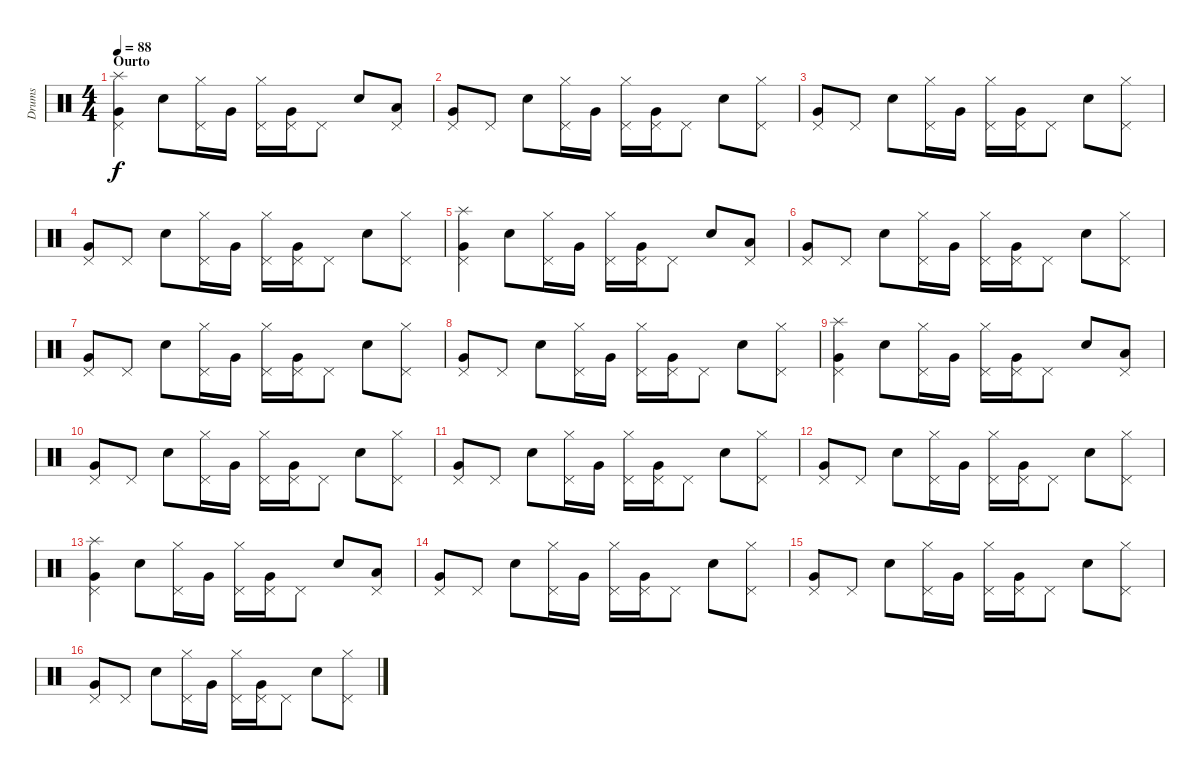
\track ("Drums" "Drums") {instrument percussion}
\staff {score}
\articulation defaults
\ts (4 4)
\section ("" "Ourto")
\tempo 88
\clef neutral
\ks c
("Very Low Tom (hit)" "Pedal Hi-Hat (hit)" "Splash (hit)").4{dy f} "Electric Snare (hit)".8 ("Hi-Hat (closed)" "Pedal Hi-Hat (hit)").16 "Very Low Tom (hit)".16 ("Hi-Hat (closed)" "Pedal Hi-Hat (hit)").16 ("Very Low Tom (hit)" "Pedal Hi-Hat (hit)").16 "Pedal Hi-Hat (hit)".8 "Electric Snare (hit)".8 ("Low Floor Tom (hit)" "Pedal Hi-Hat (hit)").8 |
("Very Low Tom (hit)" "Pedal Hi-Hat (hit)").8 "Pedal Hi-Hat (hit)".8 "Electric Snare (hit)".8 ("Hi-Hat (closed)" "Pedal Hi-Hat (hit)").16 "Very Low Tom (hit)".16 ("Hi-Hat (closed)" "Pedal Hi-Hat (hit)").16 ("Very Low Tom (hit)" "Pedal Hi-Hat (hit)").16 "Pedal Hi-Hat (hit)".8 "Electric Snare (hit)".8 ("Hi-Hat (closed)" "Pedal Hi-Hat (hit)").8 |
("Very Low Tom (hit)" "Pedal Hi-Hat (hit)").8 "Pedal Hi-Hat (hit)".8 "Electric Snare (hit)".8 ("Hi-Hat (closed)" "Pedal Hi-Hat (hit)").16 "Very Low Tom (hit)".16 ("Hi-Hat (closed)" "Pedal Hi-Hat (hit)").16 ("Very Low Tom (hit)" "Pedal Hi-Hat (hit)").16 "Pedal Hi-Hat (hit)".8 "Electric Snare (hit)".8 ("Hi-Hat (closed)" "Pedal Hi-Hat (hit)").8 |
("Very Low Tom (hit)" "Pedal Hi-Hat (hit)").8 "Pedal Hi-Hat (hit)".8 "Electric Snare (hit)".8 ("Hi-Hat (closed)" "Pedal Hi-Hat (hit)").16 "Very Low Tom (hit)".16 ("Hi-Hat (closed)" "Pedal Hi-Hat (hit)").16 ("Very Low Tom (hit)" "Pedal Hi-Hat (hit)").16 "Pedal Hi-Hat (hit)".8 "Electric Snare (hit)".8 ("Hi-Hat (closed)" "Pedal Hi-Hat (hit)").8 |
("Very Low Tom (hit)" "Pedal Hi-Hat (hit)" "Splash (hit)").4 "Electric Snare (hit)".8 ("Hi-Hat (closed)" "Pedal Hi-Hat (hit)").16 "Very Low Tom (hit)".16 ("Hi-Hat (closed)" "Pedal Hi-Hat (hit)").16 ("Very Low Tom (hit)" "Pedal Hi-Hat (hit)").16 "Pedal Hi-Hat (hit)".8 "Electric Snare (hit)".8 ("Low Floor Tom (hit)" "Pedal Hi-Hat (hit)").8 |
("Very Low Tom (hit)" "Pedal Hi-Hat (hit)").8 "Pedal Hi-Hat (hit)".8 "Electric Snare (hit)".8 ("Hi-Hat (closed)" "Pedal Hi-Hat (hit)").16 "Very Low Tom (hit)".16 ("Hi-Hat (closed)" "Pedal Hi-Hat (hit)").16 ("Very Low Tom (hit)" "Pedal Hi-Hat (hit)").16 "Pedal Hi-Hat (hit)".8 "Electric Snare (hit)".8 ("Hi-Hat (closed)" "Pedal Hi-Hat (hit)").8 |
("Very Low Tom (hit)" "Pedal Hi-Hat (hit)").8 "Pedal Hi-Hat (hit)".8 "Electric Snare (hit)".8 ("Hi-Hat (closed)" "Pedal Hi-Hat (hit)").16 "Very Low Tom (hit)".16 ("Hi-Hat (closed)" "Pedal Hi-Hat (hit)").16 ("Very Low Tom (hit)" "Pedal Hi-Hat (hit)").16 "Pedal Hi-Hat (hit)".8 "Electric Snare (hit)".8 ("Hi-Hat (closed)" "Pedal Hi-Hat (hit)").8 |
("Very Low Tom (hit)" "Pedal Hi-Hat (hit)").8 "Pedal Hi-Hat (hit)".8 "Electric Snare (hit)".8 ("Hi-Hat (closed)" "Pedal Hi-Hat (hit)").16 "Very Low Tom (hit)".16 ("Hi-Hat (closed)" "Pedal Hi-Hat (hit)").16 ("Very Low Tom (hit)" "Pedal Hi-Hat (hit)").16 "Pedal Hi-Hat (hit)".8 "Electric Snare (hit)".8 ("Hi-Hat (closed)" "Pedal Hi-Hat (hit)").8 |
("Very Low Tom (hit)" "Pedal Hi-Hat (hit)" "Splash (hit)").4 "Electric Snare (hit)".8 ("Hi-Hat (closed)" "Pedal Hi-Hat (hit)").16 "Very Low Tom (hit)".16 ("Hi-Hat (closed)" "Pedal Hi-Hat (hit)").16 ("Very Low Tom (hit)" "Pedal Hi-Hat (hit)").16 "Pedal Hi-Hat (hit)".8 "Electric Snare (hit)".8 ("Low Floor Tom (hit)" "Pedal Hi-Hat (hit)").8 |
("Very Low Tom (hit)" "Pedal Hi-Hat (hit)").8 "Pedal Hi-Hat (hit)".8 "Electric Snare (hit)".8 ("Hi-Hat (closed)" "Pedal Hi-Hat (hit)").16 "Very Low Tom (hit)".16 ("Hi-Hat (closed)" "Pedal Hi-Hat (hit)").16 ("Very Low Tom (hit)" "Pedal Hi-Hat (hit)").16 "Pedal Hi-Hat (hit)".8 "Electric Snare (hit)".8 ("Hi-Hat (closed)" "Pedal Hi-Hat (hit)").8 |
("Very Low Tom (hit)" "Pedal Hi-Hat (hit)").8 "Pedal Hi-Hat (hit)".8 "Electric Snare (hit)".8 ("Hi-Hat (closed)" "Pedal Hi-Hat (hit)").16 "Very Low Tom (hit)".16 ("Hi-Hat (closed)" "Pedal Hi-Hat (hit)").16 ("Very Low Tom (hit)" "Pedal Hi-Hat (hit)").16 "Pedal Hi-Hat (hit)".8 "Electric Snare (hit)".8 ("Hi-Hat (closed)" "Pedal Hi-Hat (hit)").8 |
("Very Low Tom (hit)" "Pedal Hi-Hat (hit)").8 "Pedal Hi-Hat (hit)".8 "Electric Snare (hit)".8 ("Hi-Hat (closed)" "Pedal Hi-Hat (hit)").16 "Very Low Tom (hit)".16 ("Hi-Hat (closed)" "Pedal Hi-Hat (hit)").16 ("Very Low Tom (hit)" "Pedal Hi-Hat (hit)").16 "Pedal Hi-Hat (hit)".8 "Electric Snare (hit)".8 ("Hi-Hat (closed)" "Pedal Hi-Hat (hit)").8 |
("Very Low Tom (hit)" "Pedal Hi-Hat (hit)" "Splash (hit)").4 "Electric Snare (hit)".8 ("Hi-Hat (closed)" "Pedal Hi-Hat (hit)").16 "Very Low Tom (hit)".16 ("Hi-Hat (closed)" "Pedal Hi-Hat (hit)").16 ("Very Low Tom (hit)" "Pedal Hi-Hat (hit)").16 "Pedal Hi-Hat (hit)".8 "Electric Snare (hit)".8 ("Low Floor Tom (hit)" "Pedal Hi-Hat (hit)").8 |
("Very Low Tom (hit)" "Pedal Hi-Hat (hit)").8 "Pedal Hi-Hat (hit)".8 "Electric Snare (hit)".8 ("Hi-Hat (closed)" "Pedal Hi-Hat (hit)").16 "Very Low Tom (hit)".16 ("Hi-Hat (closed)" "Pedal Hi-Hat (hit)").16 ("Very Low Tom (hit)" "Pedal Hi-Hat (hit)").16 "Pedal Hi-Hat (hit)".8 "Electric Snare (hit)".8 ("Hi-Hat (closed)" "Pedal Hi-Hat (hit)").8 |
("Very Low Tom (hit)" "Pedal Hi-Hat (hit)").8 "Pedal Hi-Hat (hit)".8 "Electric Snare (hit)".8 ("Hi-Hat (closed)" "Pedal Hi-Hat (hit)").16 "Very Low Tom (hit)".16 ("Hi-Hat (closed)" "Pedal Hi-Hat (hit)").16 ("Very Low Tom (hit)" "Pedal Hi-Hat (hit)").16 "Pedal Hi-Hat (hit)".8 "Electric Snare (hit)".8 ("Hi-Hat (closed)" "Pedal Hi-Hat (hit)").8 |
("Very Low Tom (hit)" "Pedal Hi-Hat (hit)").8 "Pedal Hi-Hat (hit)".8 "Electric Snare (hit)".8 ("Hi-Hat (closed)" "Pedal Hi-Hat (hit)").16 "Very Low Tom (hit)".16 ("Hi-Hat (closed)" "Pedal Hi-Hat (hit)").16 ("Very Low Tom (hit)" "Pedal Hi-Hat (hit)").16 "Pedal Hi-Hat (hit)".8 "Electric Snare (hit)".8 ("Hi-Hat (closed)" "Pedal Hi-Hat (hit)").8
